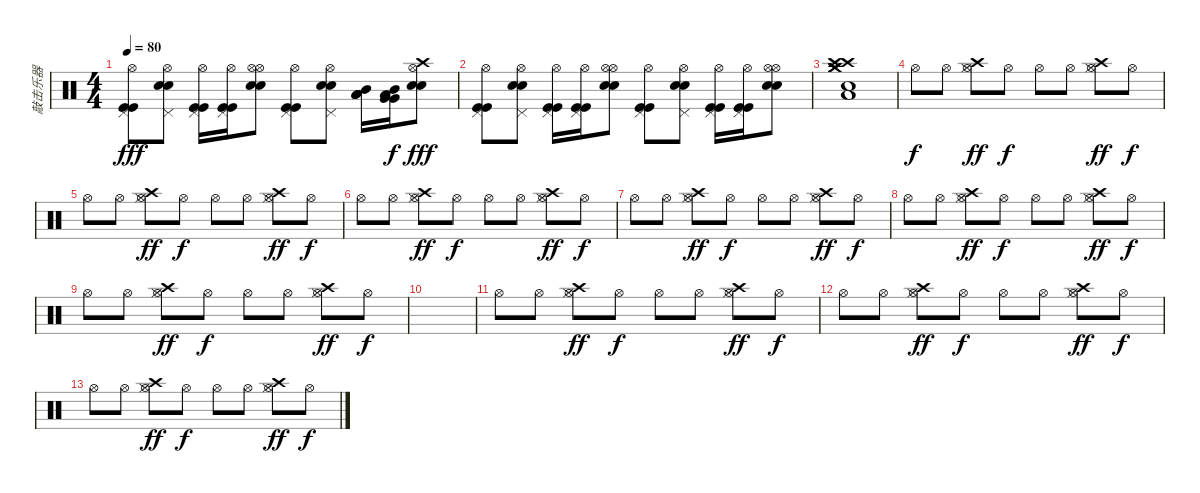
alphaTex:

\track ("敲击乐器" "敲击乐器") {instrument percussion}
\staff {score}
\articulation defaults
\ts (4 4)
\tempo 80
\clef neutral
\ks c
("Kick (hit)" "Kick (hit)" "Pedal Hi-Hat (hit)" "Hi-Hat (open)").8{dy fff} ("Electric Snare (hit)" "Electric Snare (hit)" "Pedal Hi-Hat (hit)" "Hi-Hat (open)").8 ("Kick (hit)" "Kick (hit)" "Pedal Hi-Hat (hit)" "Hi-Hat (open)").16 ("Kick (hit)" "Kick (hit)" "Pedal Hi-Hat (hit)" "Hi-Hat (open)").16 ("Electric Snare (hit)" "Electric Snare (hit)" "Hi-Hat (open)" "Hi-Hat (open)").8 ("Kick (hit)" "Kick (hit)" "Pedal Hi-Hat (hit)" "Hi-Hat (open)").8 ("Electric Snare (hit)" "Electric Snare (hit)" "Pedal Hi-Hat (hit)" "Hi-Hat (open)").8 ("Low Floor Tom (hit)" "Low Floor Tom (hit)" "Mid Tom (hit)" "Low Floor Tom (hit)").16 ("Very Low Tom (hit)" "Very Low Tom (hit)" "Mid Tom (hit)" "Low Floor Tom (hit)").16{dy f} ("Electric Snare (hit)" "Electric Snare (hit)" "Hi-Hat (open)" "Crash high (hit)").8{dy fff} |
("Kick (hit)" "Kick (hit)" "Pedal Hi-Hat (hit)" "Hi-Hat (open)").8 ("Electric Snare (hit)" "Electric Snare (hit)" "Pedal Hi-Hat (hit)" "Hi-Hat (open)").8 ("Kick (hit)" "Kick (hit)" "Pedal Hi-Hat (hit)" "Hi-Hat (open)").16 ("Kick (hit)" "Kick (hit)" "Pedal Hi-Hat (hit)" "Hi-Hat (open)").16 ("Electric Snare (hit)" "Electric Snare (hit)" "Hi-Hat (open)" "Hi-Hat (open)").8 ("Kick (hit)" "Kick (hit)" "Pedal Hi-Hat (hit)" "Hi-Hat (open)").8 ("Electric Snare (hit)" "Electric Snare (hit)" "Pedal Hi-Hat (hit)" "Hi-Hat (open)").8 ("Kick (hit)" "Kick (hit)" "Pedal Hi-Hat (hit)" "Hi-Hat (open)").16 ("Kick (hit)" "Kick (hit)" "Pedal Hi-Hat (hit)" "Hi-Hat (open)").16 ("Electric Snare (hit)" "Electric Snare (hit)" "Hi-Hat (open)" "Hi-Hat (open)").8 |
("Crash medium (hit)" "Crash medium (hit)" "Crash high (hit)" "Crash high (hit)" "Electric Snare (hit)" "Low Floor Tom (hit)").1 |
"Hi-Hat (open)".8{dy f volume 12} "Hi-Hat (open)".8 ("Hi-Hat (open)" "Hi-Hat (closed)" "Crash high (hit)").8{dy ff} "Hi-Hat (open)".8{dy f} "Hi-Hat (open)".8 "Hi-Hat (open)".8 ("Hi-Hat (open)" "Hi-Hat (closed)" "Crash high (hit)").8{dy ff} "Hi-Hat (open)".8{dy f} |
"Hi-Hat (open)".8 "Hi-Hat (open)".8 ("Hi-Hat (open)" "Hi-Hat (closed)" "Crash high (hit)").8{dy ff} "Hi-Hat (open)".8{dy f} "Hi-Hat (open)".8 "Hi-Hat (open)".8 ("Hi-Hat (open)" "Hi-Hat (closed)" "Crash high (hit)").8{dy ff} "Hi-Hat (open)".8{dy f} |
"Hi-Hat (open)".8 "Hi-Hat (open)".8 ("Hi-Hat (open)" "Hi-Hat (closed)" "Crash high (hit)").8{dy ff} "Hi-Hat (open)".8{dy f} "Hi-Hat (open)".8 "Hi-Hat (open)".8 ("Hi-Hat (open)" "Hi-Hat (closed)" "Crash high (hit)").8{dy ff} "Hi-Hat (open)".8{dy f} |
"Hi-Hat (open)".8 "Hi-Hat (open)".8 ("Hi-Hat (open)" "Hi-Hat (closed)" "Crash high (hit)").8{dy ff} "Hi-Hat (open)".8{dy f} "Hi-Hat (open)".8 "Hi-Hat (open)".8 ("Hi-Hat (open)" "Hi-Hat (closed)" "Crash high (hit)").8{dy ff} "Hi-Hat (open)".8{dy f} |
"Hi-Hat (open)".8 "Hi-Hat (open)".8 ("Hi-Hat (open)" "Hi-Hat (closed)" "Crash high (hit)").8{dy ff} "Hi-Hat (open)".8{dy f} "Hi-Hat (open)".8 "Hi-Hat (open)".8 ("Hi-Hat (open)" "Hi-Hat (closed)" "Crash high (hit)").8{dy ff} "Hi-Hat (open)".8{dy f} |
"Hi-Hat (open)".8 "Hi-Hat (open)".8 ("Hi-Hat (open)" "Hi-Hat (closed)" "Crash high (hit)").8{dy ff} "Hi-Hat (open)".8{dy f} "Hi-Hat (open)".8 "Hi-Hat (open)".8 ("Hi-Hat (open)" "Hi-Hat (closed)" "Crash high (hit)").8{dy ff} "Hi-Hat (open)".8{dy f} |
|
"Hi-Hat (open)".8 "Hi-Hat (open)".8 ("Hi-Hat (open)" "Hi-Hat (closed)" "Crash high (hit)").8{dy ff} "Hi-Hat (open)".8{dy f} "Hi-Hat (open)".8 "Hi-Hat (open)".8 ("Hi-Hat (open)" "Hi-Hat (closed)" "Crash high (hit)").8{dy ff} "Hi-Hat (open)".8{dy f} |
"Hi-Hat (open)".8 "Hi-Hat (open)".8 ("Hi-Hat (open)" "Hi-Hat (closed)" "Crash high (hit)").8{dy ff} "Hi-Hat (open)".8{dy f} "Hi-Hat (open)".8 "Hi-Hat (open)".8 ("Hi-Hat (open)" "Hi-Hat (closed)" "Crash high (hit)").8{dy ff} "Hi-Hat (open)".8{dy f} |
"Hi-Hat (open)".8 "Hi-Hat (open)".8 ("Hi-Hat (open)" "Hi-Hat (closed)" "Crash high (hit)").8{dy ff} "Hi-Hat (open)".8{dy f} "Hi-Hat (open)".8 "Hi-Hat (open)".8 ("Hi-Hat (open)" "Hi-Hat (closed)" "Crash high (hit)").8{dy ff} "Hi-Hat (open)".8{dy f}
